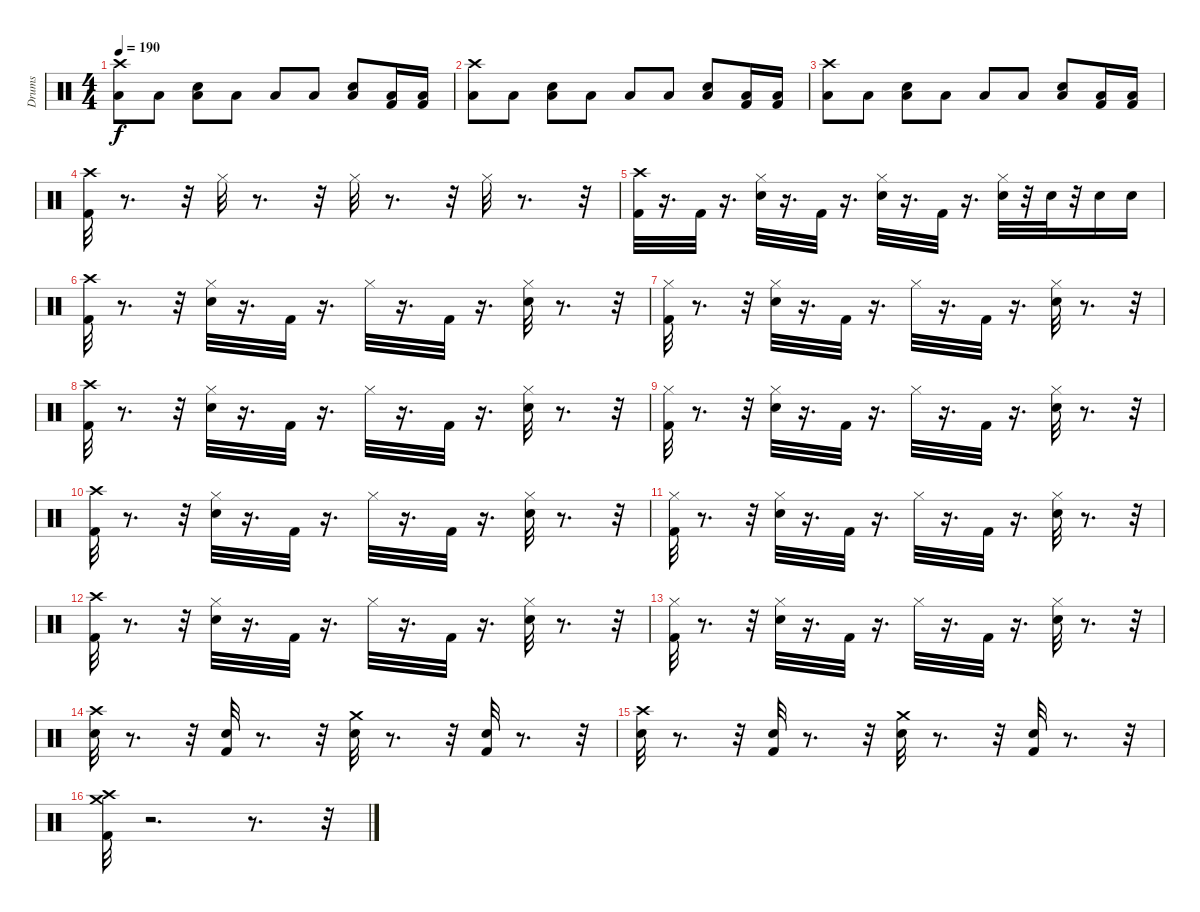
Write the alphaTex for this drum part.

\track ("Drums" "Drums") {instrument percussion}
\staff {score}
\articulation defaults
\ts (4 4)
\tempo 190
\clef neutral
\ks c
("Crash high (hit)" "Low Tom (hit)").8{dy f} "Low Tom (hit)".8 ("Low Tom (hit)" "Snare (hit) 2").8 "Low Tom (hit)".8 "Low Tom (hit)".8 "Low Tom (hit)".8 ("Low Tom (hit)" "Snare (hit) 2").8 ("Low Tom (hit)" "Kick (hit) 2").16 ("Low Tom (hit)" "Kick (hit) 2").16 |
("Crash high (hit)" "Low Tom (hit)").8 "Low Tom (hit)".8 ("Low Tom (hit)" "Snare (hit) 2").8 "Low Tom (hit)".8 "Low Tom (hit)".8 "Low Tom (hit)".8 ("Low Tom (hit)" "Snare (hit) 2").8 ("Low Tom (hit)" "Kick (hit) 2").16 ("Low Tom (hit)" "Kick (hit) 2").16 |
("Crash high (hit)" "Low Tom (hit)").8 "Low Tom (hit)".8 ("Low Tom (hit)" "Snare (hit) 2").8 "Low Tom (hit)".8 "Low Tom (hit)".8 "Low Tom (hit)".8 ("Low Tom (hit)" "Snare (hit) 2").8 ("Low Tom (hit)" "Kick (hit) 2").16 ("Low Tom (hit)" "Kick (hit) 2").16 |
("Crash high (hit)" "Kick (hit) 2").32 r.8{d} r.32 "Hi-Hat (closed)".32 r.8{d} r.32 "Hi-Hat (closed)".32 r.8{d} r.32 "Hi-Hat (closed)".32 r.8{d} r.32 |
("Crash high (hit)" "Kick (hit) 2").32 r.16{d} "Kick (hit) 2".32 r.16{d} ("Hi-Hat (closed)" "Snare (hit) 2").32 r.16{d} "Kick (hit) 2".32 r.16{d} ("Snare (hit) 2" "Hi-Hat (closed)").32 r.16{d} "Kick (hit) 2".32 r.16{d} ("Hi-Hat (closed)" "Snare (hit) 2").32 r.32 "Snare (hit) 2".32 r.32 "Snare (hit) 2".16 "Snare (hit) 2".16 |
("Kick (hit) 2" "Crash high (hit)").32 r.8{d} r.32 ("Hi-Hat (closed)" "Snare (hit) 2").32 r.16{d} "Kick (hit) 2".32 r.16{d} "Hi-Hat (closed)".32 r.16{d} "Kick (hit) 2".32 r.16{d} ("Hi-Hat (closed)" "Snare (hit) 2").32 r.8{d} r.32 |
("Hi-Hat (closed)" "Kick (hit) 2").32 r.8{d} r.32 ("Snare (hit) 2" "Hi-Hat (closed)").32 r.16{d} "Kick (hit) 2".32 r.16{d} "Hi-Hat (closed)".32 r.16{d} "Kick (hit) 2".32 r.16{d} ("Snare (hit) 2" "Hi-Hat (closed)").32 r.8{d} r.32 |
("Kick (hit) 2" "Crash high (hit)").32 r.8{d} r.32 ("Hi-Hat (closed)" "Snare (hit) 2").32 r.16{d} "Kick (hit) 2".32 r.16{d} "Hi-Hat (closed)".32 r.16{d} "Kick (hit) 2".32 r.16{d} ("Hi-Hat (closed)" "Snare (hit) 2").32 r.8{d} r.32 |
("Hi-Hat (closed)" "Kick (hit) 2").32 r.8{d} r.32 ("Snare (hit) 2" "Hi-Hat (closed)").32 r.16{d} "Kick (hit) 2".32 r.16{d} "Hi-Hat (closed)".32 r.16{d} "Kick (hit) 2".32 r.16{d} ("Snare (hit) 2" "Hi-Hat (closed)").32 r.8{d} r.32 |
("Kick (hit) 2" "Crash high (hit)").32 r.8{d} r.32 ("Hi-Hat (closed)" "Snare (hit) 2").32 r.16{d} "Kick (hit) 2".32 r.16{d} "Hi-Hat (closed)".32 r.16{d} "Kick (hit) 2".32 r.16{d} ("Hi-Hat (closed)" "Snare (hit) 2").32 r.8{d} r.32 |
("Hi-Hat (closed)" "Kick (hit) 2").32 r.8{d} r.32 ("Snare (hit) 2" "Hi-Hat (closed)").32 r.16{d} "Kick (hit) 2".32 r.16{d} "Hi-Hat (closed)".32 r.16{d} "Kick (hit) 2".32 r.16{d} ("Snare (hit) 2" "Hi-Hat (closed)").32 r.8{d} r.32 |
("Kick (hit) 2" "Crash high (hit)").32 r.8{d} r.32 ("Hi-Hat (closed)" "Snare (hit) 2").32 r.16{d} "Kick (hit) 2".32 r.16{d} "Hi-Hat (closed)".32 r.16{d} "Kick (hit) 2".32 r.16{d} ("Hi-Hat (closed)" "Snare (hit) 2").32 r.8{d} r.32 |
("Hi-Hat (closed)" "Kick (hit) 2").32 r.8{d} r.32 ("Snare (hit) 2" "Hi-Hat (closed)").32 r.16{d} "Kick (hit) 2".32 r.16{d} "Hi-Hat (closed)".32 r.16{d} "Kick (hit) 2".32 r.16{d} ("Snare (hit) 2" "Hi-Hat (closed)").32 r.8{d} r.32 |
("Crash high (hit)" "Snare (hit) 2").32 r.8{d} r.32 ("Hand Clap (hit)" "Kick (hit) 2").32 r.8{d} r.32 ("Crash medium (hit)" "Snare (hit) 2").32 r.8{d} r.32 ("Hand Clap (hit)" "Kick (hit) 2").32 r.8{d} r.32 |
("Snare (hit) 2" "Crash high (hit)").32 r.8{d} r.32 ("Hand Clap (hit)" "Kick (hit) 2").32 r.8{d} r.32 ("Crash medium (hit)" "Snare (hit) 2").32 r.8{d} r.32 ("Hand Clap (hit)" "Kick (hit) 2").32 r.8{d} r.32 |
("Kick (hit) 2" "Crash high (hit)" "Crash medium (hit)").32 r.2{d} r.8{d} r.32
